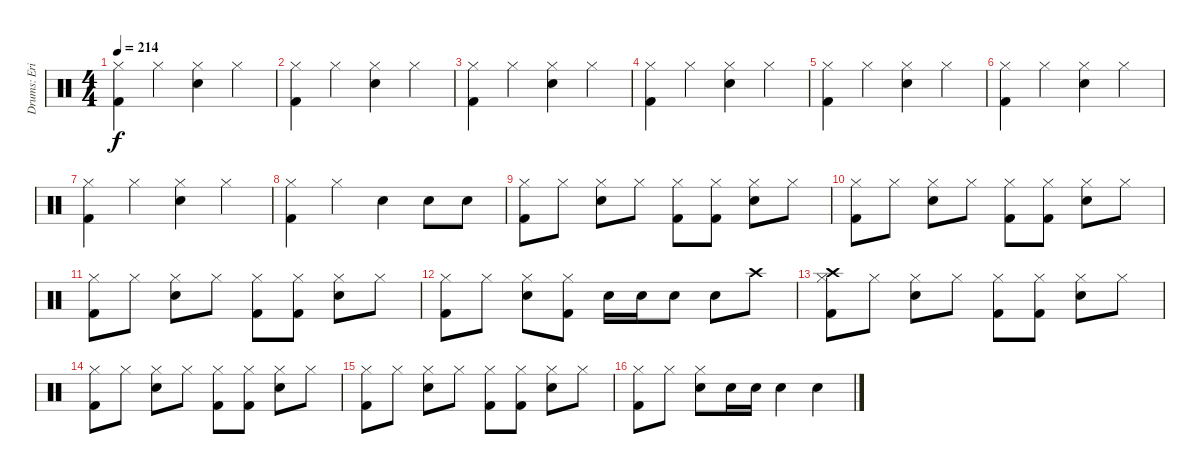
\track ("Drums: Erik Sandin" "Drums: Eri") {instrument percussion}
\staff {score}
\articulation defaults
\ts (4 4)
\tempo 214
\clef neutral
\ks c
("Hi-Hat (closed)" "Kick (hit) 2").4{dy f} "Hi-Hat (closed)".4 ("Hi-Hat (closed)" "Electric Snare (hit)").4 "Hi-Hat (closed)".4 |
("Hi-Hat (closed)" "Kick (hit) 2").4 "Hi-Hat (closed)".4 ("Hi-Hat (closed)" "Electric Snare (hit)").4 "Hi-Hat (closed)".4 |
("Hi-Hat (closed)" "Kick (hit) 2").4 "Hi-Hat (closed)".4 ("Hi-Hat (closed)" "Electric Snare (hit)").4 "Hi-Hat (closed)".4 |
("Hi-Hat (closed)" "Kick (hit) 2").4 "Hi-Hat (closed)".4 ("Hi-Hat (closed)" "Electric Snare (hit)").4 "Hi-Hat (closed)".4 |
("Hi-Hat (closed)" "Kick (hit) 2").4 "Hi-Hat (closed)".4 ("Hi-Hat (closed)" "Electric Snare (hit)").4 "Hi-Hat (closed)".4 |
("Hi-Hat (closed)" "Kick (hit) 2").4 "Hi-Hat (closed)".4 ("Hi-Hat (closed)" "Electric Snare (hit)").4 "Hi-Hat (closed)".4 |
("Hi-Hat (closed)" "Kick (hit) 2").4 "Hi-Hat (closed)".4 ("Hi-Hat (closed)" "Electric Snare (hit)").4 "Hi-Hat (closed)".4 |
("Hi-Hat (closed)" "Kick (hit) 2").4 "Hi-Hat (closed)".4 "Electric Snare (hit)".4 "Electric Snare (hit)".8 "Electric Snare (hit)".8 |
("Hi-Hat (closed)" "Kick (hit) 2").8 "Hi-Hat (closed)".8 ("Hi-Hat (closed)" "Electric Snare (hit)").8 "Hi-Hat (closed)".8 ("Hi-Hat (closed)" "Kick (hit) 2").8 ("Hi-Hat (closed)" "Kick (hit) 2").8 ("Hi-Hat (closed)" "Electric Snare (hit)").8 "Hi-Hat (closed)".8 |
("Hi-Hat (closed)" "Kick (hit) 2").8 "Hi-Hat (closed)".8 ("Hi-Hat (closed)" "Electric Snare (hit)").8 "Hi-Hat (closed)".8 ("Hi-Hat (closed)" "Kick (hit) 2").8 ("Hi-Hat (closed)" "Kick (hit) 2").8 ("Hi-Hat (closed)" "Electric Snare (hit)").8 "Hi-Hat (closed)".8 |
("Hi-Hat (closed)" "Kick (hit) 2").8 "Hi-Hat (closed)".8 ("Hi-Hat (closed)" "Electric Snare (hit)").8 "Hi-Hat (closed)".8 ("Hi-Hat (closed)" "Kick (hit) 2").8 ("Hi-Hat (closed)" "Kick (hit) 2").8 ("Hi-Hat (closed)" "Electric Snare (hit)").8 "Hi-Hat (closed)".8 |
("Hi-Hat (closed)" "Kick (hit) 2").8 "Hi-Hat (closed)".8 ("Hi-Hat (closed)" "Electric Snare (hit)").8 ("Hi-Hat (closed)" "Kick (hit) 2").8 "Electric Snare (hit)".16 "Electric Snare (hit)".16 "Electric Snare (hit)".8 "Electric Snare (hit)".8 "Crash high (hit)".8 |
("Crash high (hit)" "Hi-Hat (closed)" "Kick (hit) 2").8 "Hi-Hat (closed)".8 ("Hi-Hat (closed)" "Electric Snare (hit)").8 "Hi-Hat (closed)".8 ("Hi-Hat (closed)" "Kick (hit) 2").8 ("Hi-Hat (closed)" "Kick (hit) 2").8 ("Hi-Hat (closed)" "Electric Snare (hit)").8 "Hi-Hat (closed)".8 |
("Hi-Hat (closed)" "Kick (hit) 2").8 "Hi-Hat (closed)".8 ("Hi-Hat (closed)" "Electric Snare (hit)").8 "Hi-Hat (closed)".8 ("Hi-Hat (closed)" "Kick (hit) 2").8 ("Hi-Hat (closed)" "Kick (hit) 2").8 ("Hi-Hat (closed)" "Electric Snare (hit)").8 "Hi-Hat (closed)".8 |
("Hi-Hat (closed)" "Kick (hit) 2").8 "Hi-Hat (closed)".8 ("Hi-Hat (closed)" "Electric Snare (hit)").8 "Hi-Hat (closed)".8 ("Hi-Hat (closed)" "Kick (hit) 2").8 ("Hi-Hat (closed)" "Kick (hit) 2").8 ("Hi-Hat (closed)" "Electric Snare (hit)").8 "Hi-Hat (closed)".8 |
("Hi-Hat (closed)" "Kick (hit) 2").8 "Hi-Hat (closed)".8 ("Hi-Hat (closed)" "Electric Snare (hit)").8 "Electric Snare (hit)".16 "Electric Snare (hit)".16 "Electric Snare (hit)".4 "Electric Snare (hit)".4
